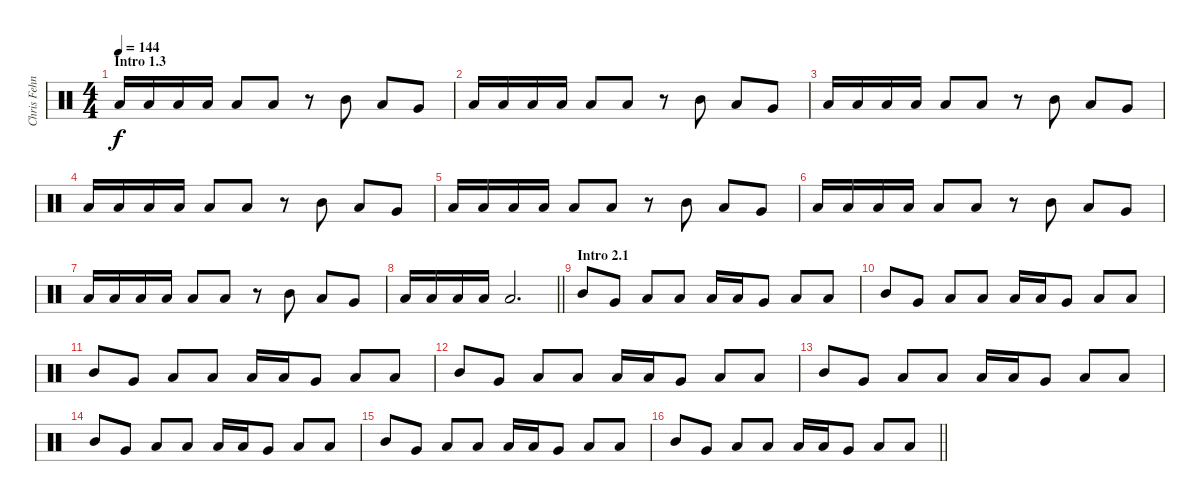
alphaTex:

\track ("Chris Fehn" "Chris Fehn") {instrument percussion}
\staff {score}
\articulation defaults
\ts (4 4)
\section ("" "Intro 1.3")
\tempo 144
\clef neutral
\ks c "Low Floor Tom (hit)".16{dy f} "Low Floor Tom (hit)".16 "Low Floor Tom (hit)".16 "Low Floor Tom (hit)".16 "Low Floor Tom (hit)".8 "Low Floor Tom (hit)".8
r.8 "Mid Tom (hit)".8 "Low Tom (hit)".8 "Very Low Tom (hit)".8 |
"Low Floor Tom (hit)".16 "Low Floor Tom (hit)".16 "Low Floor Tom (hit)".16 "Low Floor Tom (hit)".16 "Low Floor Tom (hit)".8 "Low Floor Tom (hit)".8 r.8 "Mid Tom (hit)".8 "Low Tom (hit)".8 "Very Low Tom (hit)".8 |
"Low Floor Tom (hit)".16 "Low Floor Tom (hit)".16 "Low Floor Tom (hit)".16 "Low Floor Tom (hit)".16 "Low Floor Tom (hit)".8 "Low Floor Tom (hit)".8 r.8 "Mid Tom (hit)".8 "Low Tom (hit)".8 "Very Low Tom (hit)".8 |
"Low Floor Tom (hit)".16 "Low Floor Tom (hit)".16 "Low Floor Tom (hit)".16 "Low Floor Tom (hit)".16 "Low Floor Tom (hit)".8 "Low Floor Tom (hit)".8 r.8 "Mid Tom (hit)".8 "Low Tom (hit)".8 "Very Low Tom (hit)".8 |
"Low Floor Tom (hit)".16 "Low Floor Tom (hit)".16 "Low Floor Tom (hit)".16 "Low Floor Tom (hit)".16 "Low Floor Tom (hit)".8 "Low Floor Tom (hit)".8 r.8 "Mid Tom (hit)".8 "Low Tom (hit)".8 "Very Low Tom (hit)".8 |
"Low Floor Tom (hit)".16 "Low Floor Tom (hit)".16 "Low Floor Tom (hit)".16 "Low Floor Tom (hit)".16 "Low Floor Tom (hit)".8 "Low Floor Tom (hit)".8 r.8 "Mid Tom (hit)".8 "Low Tom (hit)".8 "Very Low Tom (hit)".8 |
"Low Floor Tom (hit)".16 "Low Floor Tom (hit)".16 "Low Floor Tom (hit)".16 "Low Floor Tom (hit)".16 "Low Floor Tom (hit)".8 "Low Floor Tom (hit)".8 r.8 "Mid Tom (hit)".8 "Low Tom (hit)".8 "Very Low Tom (hit)".8 |
\barLineRight lightlight "Low Floor Tom (hit)".16 "Low Floor Tom (hit)".16 "Low Floor Tom (hit)".16 "Low Floor Tom (hit)".16 "Low Floor Tom (hit)".2{d}
|
\section ("" "Intro 2.1")
"Mid Tom (hit)".8 "Very Low Tom (hit)".8 "Low Tom (hit)".8 "Low Floor Tom (hit)".8 "Low Tom (hit)".16 "Low Tom (hit)".16 "Very Low Tom (hit)".8 "Low Floor Tom (hit)".8 "Low Floor Tom (hit)".8 |
"Mid Tom (hit)".8 "Very Low Tom (hit)".8 "Low Tom (hit)".8 "Low Floor Tom (hit)".8 "Low Tom (hit)".16 "Low Tom (hit)".16 "Very Low Tom (hit)".8 "Low Floor Tom (hit)".8 "Low Floor Tom (hit)".8 |
"Mid Tom (hit)".8 "Very Low Tom (hit)".8 "Low Tom (hit)".8 "Low Floor Tom (hit)".8 "Low Tom (hit)".16 "Low Tom (hit)".16 "Very Low Tom (hit)".8 "Low Floor Tom (hit)".8 "Low Floor Tom (hit)".8 |
"Mid Tom (hit)".8 "Very Low Tom (hit)".8 "Low Tom (hit)".8 "Low Floor Tom (hit)".8 "Low Tom (hit)".16 "Low Tom (hit)".16 "Very Low Tom (hit)".8 "Low Floor Tom (hit)".8 "Low Floor Tom (hit)".8 |
"Mid Tom (hit)".8 "Very Low Tom (hit)".8 "Low Tom (hit)".8 "Low Floor Tom (hit)".8 "Low Tom (hit)".16 "Low Tom (hit)".16 "Very Low Tom (hit)".8 "Low Floor Tom (hit)".8 "Low Floor Tom (hit)".8 |
"Mid Tom (hit)".8 "Very Low Tom (hit)".8 "Low Tom (hit)".8 "Low Floor Tom (hit)".8 "Low Tom (hit)".16 "Low Tom (hit)".16 "Very Low Tom (hit)".8 "Low Floor Tom (hit)".8 "Low Floor Tom (hit)".8 |
"Mid Tom (hit)".8 "Very Low Tom (hit)".8 "Low Tom (hit)".8 "Low Floor Tom (hit)".8 "Low Tom (hit)".16 "Low Tom (hit)".16 "Very Low Tom (hit)".8 "Low Floor Tom (hit)".8 "Low Floor Tom (hit)".8 |
\barLineRight lightlight "Mid Tom (hit)".8 "Very Low Tom (hit)".8 "Low Tom (hit)".8 "Low Floor Tom (hit)".8 "Low Tom (hit)".16 "Low Tom (hit)".16 "Very Low Tom (hit)".8 "Low Floor Tom (hit)".8 "Low Floor Tom (hit)".8
